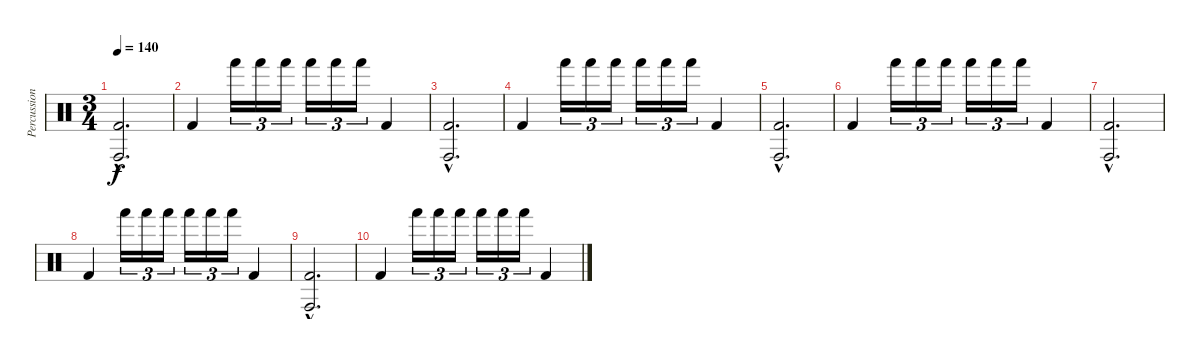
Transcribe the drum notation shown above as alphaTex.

\track ("Percussion" "Percussion") {instrument percussion}
\staff {score}
\articulation defaults
\ts (3 4)
\tempo 140
\clef neutral
\ks c
("Conga high (hit)"{hac} "Kick (hit) 2"{hac}).2{d dy f volume 6} |
"Kick (hit) 2".4 "Hand (hit)".16{tu (3 2)} "Hand (hit)".16{tu (3 2)} "Hand (hit)".16{tu (3 2)} "Hand (hit)".16{tu (3 2)} "Hand (hit)".16{tu (3 2)} "Hand (hit)".16{tu (3 2)} "Kick (hit) 2".4 |
("Conga high (hit)"{hac} "Kick (hit) 2"{hac}).2{d volume 6} |
"Kick (hit) 2".4 "Hand (hit)".16{tu (3 2)} "Hand (hit)".16{tu (3 2)} "Hand (hit)".16{tu (3 2)} "Hand (hit)".16{tu (3 2)} "Hand (hit)".16{tu (3 2)} "Hand (hit)".16{tu (3 2)} "Kick (hit) 2".4 |
("Conga high (hit)"{hac} "Kick (hit) 2"{hac}).2{d volume 5} |
"Kick (hit) 2".4 "Hand (hit)".16{tu (3 2)} "Hand (hit)".16{tu (3 2)} "Hand (hit)".16{tu (3 2)} "Hand (hit)".16{tu (3 2)} "Hand (hit)".16{tu (3 2)} "Hand (hit)".16{tu (3 2)} "Kick (hit) 2".4 |
("Conga high (hit)"{hac} "Kick (hit) 2"{hac}).2{d volume 4} |
"Kick (hit) 2".4 "Hand (hit)".16{tu (3 2)} "Hand (hit)".16{tu (3 2)} "Hand (hit)".16{tu (3 2)} "Hand (hit)".16{tu (3 2)} "Hand (hit)".16{tu (3 2)} "Hand (hit)".16{tu (3 2)} "Kick (hit) 2".4 |
("Conga high (hit)"{hac} "Kick (hit) 2"{hac}).2{d volume 3} |
"Kick (hit) 2".4 "Hand (hit)".16{tu (3 2)} "Hand (hit)".16{tu (3 2)} "Hand (hit)".16{tu (3 2)} "Hand (hit)".16{tu (3 2)} "Hand (hit)".16{tu (3 2)} "Hand (hit)".16{tu (3 2)} "Kick (hit) 2".4
